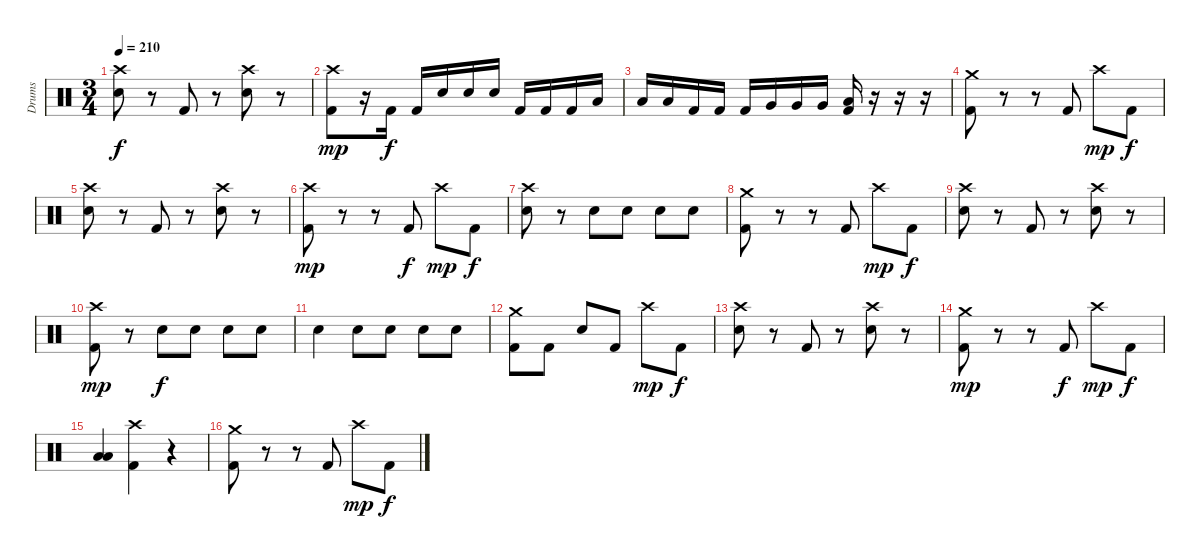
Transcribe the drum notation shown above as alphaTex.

\track ("Drums" "Drums") {instrument percussion}
\staff {score}
\articulation defaults
\ts (3 4)
\tempo 210
\clef neutral
\ks c
("Crash high (hit)" "Electric Snare (hit)").8{dy f} r.8 "Kick (hit) 2".8 r.8 ("Crash high (hit)" "Electric Snare (hit)").8 r.8 |
("Crash high (hit)" "Kick (hit) 2").8{dy mp} r.16 "Kick (hit) 2".16{dy f} "Kick (hit) 2".16 "Electric Snare (hit)".16 "Electric Snare (hit)".16 "Electric Snare (hit)".16 "Kick (hit) 2".16 "Kick (hit) 2".16 "Kick (hit) 2".16 "Low Tom (hit)".16 |
"Low Tom (hit)".16 "Low Tom (hit)".16 "Kick (hit) 2".16 "Kick (hit) 2".16 "Kick (hit) 2".16 "Very Low Tom (hit)".16 "Very Low Tom (hit)".16 "Very Low Tom (hit)".16 ("Low Floor Tom (hit)" "Kick (hit) 2").16 r.16 r.16 r.16 |
("Crash medium (hit)" "Kick (hit) 2").8 r.8 r.8 "Kick (hit) 2".8 "Crash high (hit)".8{dy mp} "Kick (hit) 2".8{dy f} |
("Crash high (hit)" "Electric Snare (hit)").8 r.8 "Kick (hit) 2".8 r.8 ("Crash high (hit)" "Electric Snare (hit)").8 r.8 |
("Crash high (hit)" "Kick (hit) 2").8{dy mp} r.8 r.8 "Kick (hit) 2".8{dy f} "Crash high (hit)".8{dy mp} "Kick (hit) 2".8{dy f} |
("Crash high (hit)" "Electric Snare (hit)").8 r.8 "Electric Snare (hit)".8 "Electric Snare (hit)".8 "Electric Snare (hit)".8 "Electric Snare (hit)".8 |
("Crash medium (hit)" "Kick (hit) 2").8 r.8 r.8 "Kick (hit) 2".8 "Crash high (hit)".8{dy mp} "Kick (hit) 2".8{dy f} |
("Crash high (hit)" "Electric Snare (hit)").8 r.8 "Kick (hit) 2".8 r.8 ("Crash high (hit)" "Electric Snare (hit)").8 r.8 |
("Crash high (hit)" "Kick (hit) 2").8{dy mp} r.8 "Electric Snare (hit)".8{dy f} "Electric Snare (hit)".8 "Electric Snare (hit)".8 "Electric Snare (hit)".8 |
"Electric Snare (hit)".4 "Electric Snare (hit)".8 "Electric Snare (hit)".8 "Electric Snare (hit)".8 "Electric Snare (hit)".8 |
("Crash medium (hit)" "Kick (hit) 2").8 "Kick (hit) 2".8 "Electric Snare (hit)".8 "Kick (hit) 2".8 "Crash high (hit)".8{dy mp} "Kick (hit) 2".8{dy f} |
("Crash high (hit)" "Electric Snare (hit)").8 r.8 "Kick (hit) 2".8 r.8 ("Crash high (hit)" "Electric Snare (hit)").8 r.8 |
("Crash medium (hit)" "Kick (hit) 2").8{dy mp} r.8 r.8 "Kick (hit) 2".8{dy f} "Crash high (hit)".8{dy mp} "Kick (hit) 2".8{dy f} |
("Low Floor Tom (hit)" "Low Floor Tom (hit)").4{bu 480} ("Crash high (hit)" "Kick (hit) 2").4 r.4 |
("Crash medium (hit)" "Kick (hit) 2").8 r.8 r.8 "Kick (hit) 2".8 "Crash high (hit)".8{dy mp} "Kick (hit) 2".8{dy f}
